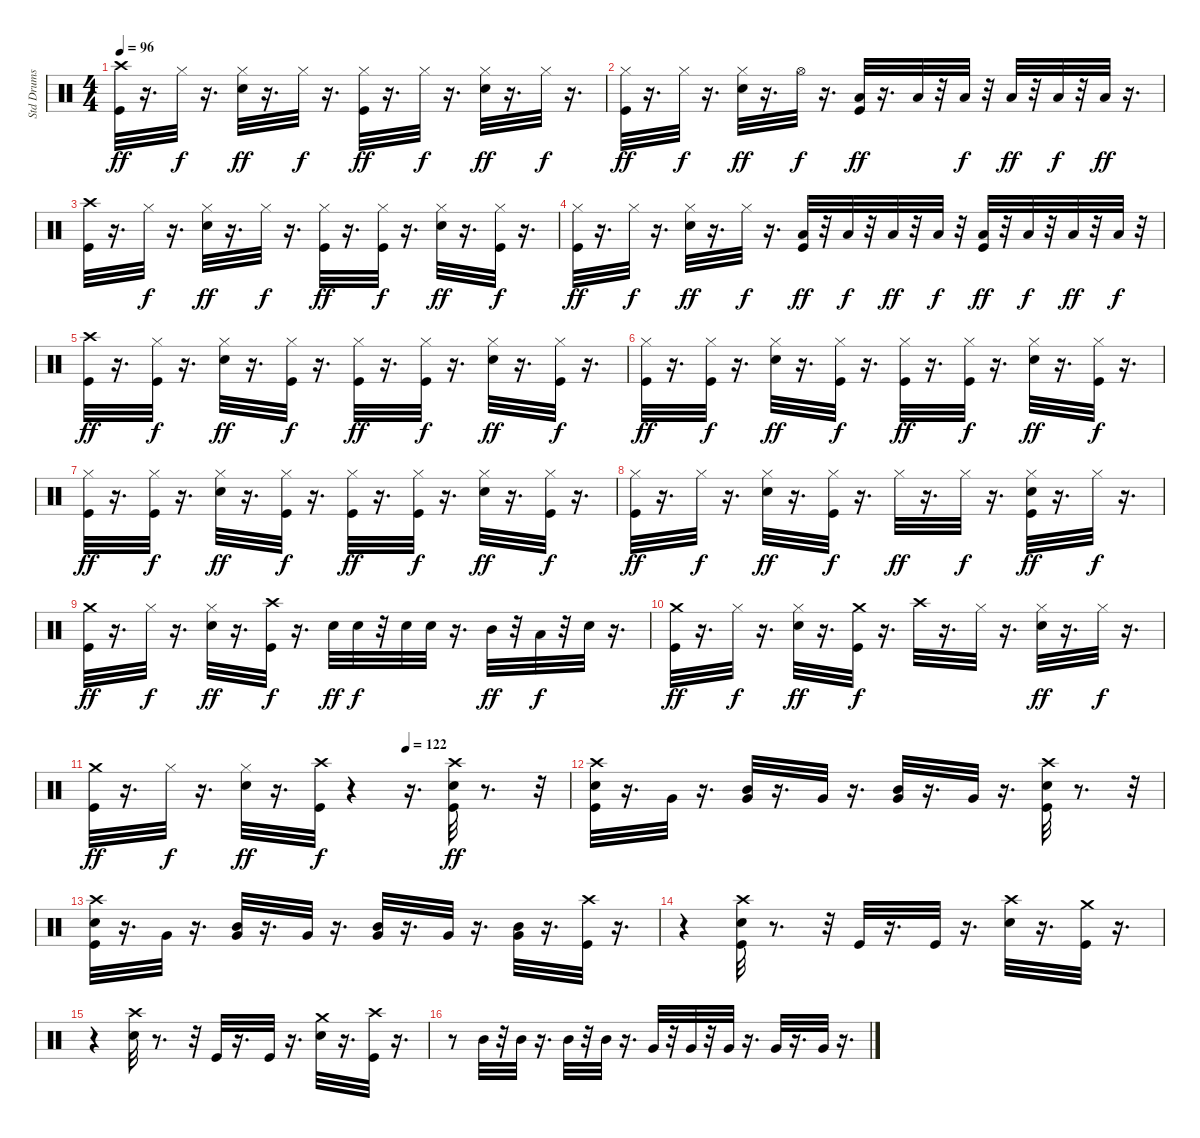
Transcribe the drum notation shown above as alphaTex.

\track ("Std Drums" "Std Drums") {instrument percussion}
\staff {score}
\articulation defaults
\ts (4 4)
\tempo 96
\clef neutral
\ks c
("Crash high (hit)" "Kick (hit)").32{dy ff} r.16{d} "Hi-Hat (closed)".32{dy f} r.16{d} ("Hi-Hat (closed)" "Snare (hit) 2").32{dy ff} r.16{d} "Hi-Hat (closed)".32{dy f} r.16{d} ("Hi-Hat (closed)" "Kick (hit)").32{dy ff} r.16{d} "Hi-Hat (closed)".32{dy f} r.16{d} ("Hi-Hat (closed)" "Snare (hit) 2").32{dy ff} r.16{d} "Hi-Hat (closed)".32{dy f} r.16{d} |
("Hi-Hat (closed)" "Kick (hit)").32{dy ff} r.16{d} "Hi-Hat (closed)".32{dy f} r.16{d} ("Hi-Hat (closed)" "Snare (hit) 2").32{dy ff} r.16{d} "Hi-Hat (open)".32{dy f} r.16{d} ("Low Tom (hit)" "Kick (hit)").32{dy ff} r.16{d} "Low Floor Tom (hit)".32 r.32 "Low Floor Tom (hit)".32{dy f} r.32 "Low Floor Tom (hit)".32{dy ff} r.32 "Low Floor Tom (hit)".32{dy f} r.32 "Low Floor Tom (hit)".32{dy ff} r.16{d} |
("Crash high (hit)" "Kick (hit)").32 r.16{d} "Hi-Hat (closed)".32{dy f} r.16{d} ("Hi-Hat (closed)" "Snare (hit) 2").32{dy ff} r.16{d} "Hi-Hat (closed)".32{dy f} r.16{d} ("Hi-Hat (closed)" "Kick (hit)").32{dy ff} r.16{d} ("Hi-Hat (closed)" "Kick (hit)").32{dy f} r.16{d} ("Hi-Hat (closed)" "Snare (hit) 2").32{dy ff} r.16{d} ("Hi-Hat (closed)" "Kick (hit)").32{dy f} r.16{d} |
("Hi-Hat (closed)" "Kick (hit)").32{dy ff} r.16{d} "Hi-Hat (closed)".32{dy f} r.16{d} ("Hi-Hat (closed)" "Snare (hit) 2").32{dy ff} r.16{d} "Hi-Hat (closed)".32{dy f} r.16{d} ("Low Tom (hit)" "Kick (hit)").32{dy ff} r.32 "Low Tom (hit)".32{dy f} r.32 "Low Tom (hit)".32{dy ff} r.32 "Low Tom (hit)".32{dy f} r.32 ("Kick (hit)" "Low Tom (hit)").32{dy ff} r.32 "Low Tom (hit)".32{dy f} r.32 "Low Tom (hit)".32{dy ff} r.32 "Low Tom (hit)".32{dy f} r.32 |
("Crash high (hit)" "Kick (hit)").32{dy ff} r.16{d} ("Hi-Hat (closed)" "Kick (hit)").32{dy f} r.16{d} ("Hi-Hat (closed)" "Snare (hit) 2").32{dy ff} r.16{d} ("Hi-Hat (closed)" "Kick (hit)").32{dy f} r.16{d} ("Hi-Hat (closed)" "Kick (hit)").32{dy ff} r.16{d} ("Hi-Hat (closed)" "Kick (hit)").32{dy f} r.16{d} ("Hi-Hat (closed)" "Snare (hit) 2").32{dy ff} r.16{d} ("Hi-Hat (closed)" "Kick (hit)").32{dy f} r.16{d} |
("Hi-Hat (closed)" "Kick (hit)").32{dy ff} r.16{d} ("Hi-Hat (closed)" "Kick (hit)").32{dy f} r.16{d} ("Hi-Hat (closed)" "Snare (hit) 2").32{dy ff} r.16{d} ("Hi-Hat (closed)" "Kick (hit)").32{dy f} r.16{d} ("Hi-Hat (closed)" "Kick (hit)").32{dy ff} r.16{d} ("Hi-Hat (closed)" "Kick (hit)").32{dy f} r.16{d} ("Hi-Hat (closed)" "Snare (hit) 2").32{dy ff} r.16{d} ("Hi-Hat (closed)" "Kick (hit)").32{dy f} r.16{d} |
("Hi-Hat (closed)" "Kick (hit)").32{dy ff} r.16{d} ("Hi-Hat (closed)" "Kick (hit)").32{dy f} r.16{d} ("Hi-Hat (closed)" "Snare (hit) 2").32{dy ff} r.16{d} ("Hi-Hat (closed)" "Kick (hit)").32{dy f} r.16{d} ("Hi-Hat (closed)" "Kick (hit)").32{dy ff} r.16{d} ("Hi-Hat (closed)" "Kick (hit)").32{dy f} r.16{d} ("Hi-Hat (closed)" "Snare (hit) 2").32{dy ff} r.16{d} ("Hi-Hat (closed)" "Kick (hit)").32{dy f} r.16{d} |
("Hi-Hat (closed)" "Kick (hit)").32{dy ff} r.16{d} "Hi-Hat (closed)".32{dy f} r.16{d} ("Hi-Hat (closed)" "Snare (hit) 2").32{dy ff} r.16{d} ("Hi-Hat (closed)" "Kick (hit)").32{dy f} r.16{d} "Hi-Hat (closed)".32{dy ff} r.16{d} "Hi-Hat (closed)".32{dy f} r.16{d} ("Hi-Hat (closed)" "Snare (hit) 2" "Kick (hit)").32{dy ff} r.16{d} "Hi-Hat (closed)".32{dy f} r.16{d} |
("Kick (hit)" "Crash medium (hit)").32{dy ff} r.16{d} "Hi-Hat (closed)".32{dy f} r.16{d} ("Hi-Hat (closed)" "Snare (hit) 2").32{dy ff} r.16{d} ("Crash high (hit)" "Kick (hit)").32{dy f} r.16{d} "Snare (hit) 2".32{dy ff} "Snare (hit) 2".32{dy f} r.32 "Snare (hit) 2".32 "Snare (hit) 2".32 r.16{d} "Mid Tom (hit)".32{dy ff} r.32 "Low Floor Tom (hit)".32{dy f} r.32 "Snare (hit) 2".32 r.16{d} |
("Kick (hit)" "Crash medium (hit)").32{dy ff} r.16{d} "Hi-Hat (closed)".32{dy f} r.16{d} ("Hi-Hat (closed)" "Snare (hit) 2").32{dy ff} r.16{d} ("Crash medium (hit)" "Kick (hit)").32{dy f} r.16{d} "Crash high (hit)".32 r.16{d} "Hi-Hat (closed)".32 r.16{d} ("Hi-Hat (closed)" "Snare (hit) 2").32{dy ff} r.16{d} "Hi-Hat (closed)".32{dy f} r.16{d} |
\tempo (122 0.65625)
("Crash medium (hit)" "Kick (hit)").32{dy ff} r.16{d} "Hi-Hat (closed)".32{dy f} r.16{d} ("Hi-Hat (closed)" "Snare (hit) 2").32{dy ff} r.16{d} ("Kick (hit)" "Crash high (hit)").32{dy f} r.4 r.16{d} ("Kick (hit)" "Snare (hit) 2" "Crash high (hit)").32{dy ff volume 14 balance 8} r.8{d} r.32 |
("Kick (hit)" "Crash high (hit)" "Snare (hit) 2").32 r.16{d} "Very Low Tom (hit)".32 r.16{d} ("Mid Tom (hit)" "Very Low Tom (hit)").32 r.16{d} "Very Low Tom (hit)".32 r.16{d} ("Mid Tom (hit)" "Very Low Tom (hit)").32 r.16{d} "Very Low Tom (hit)".32 r.16{d} ("Crash high (hit)" "Kick (hit)" "Snare (hit) 2").32 r.8{d} r.32 |
("Kick (hit)" "Crash high (hit)" "Snare (hit) 2").32 r.16{d} "Very Low Tom (hit)".32 r.16{d} ("Very Low Tom (hit)" "Mid Tom (hit)").32 r.16{d} "Very Low Tom (hit)".32 r.16{d} ("Very Low Tom (hit)" "Mid Tom (hit)").32 r.16{d} "Very Low Tom (hit)".32 r.16{d} ("Mid Tom (hit)" "Very Low Tom (hit)").32 r.16{d} ("Crash high (hit)" "Kick (hit)").32 r.16{d} |
r.4 ("Snare (hit) 2" "Kick (hit)" "Crash high (hit)").32 r.8{d} r.32 "Kick (hit)".32 r.16{d} "Kick (hit)".32 r.16{d} ("Crash high (hit)" "Snare (hit) 2").32 r.16{d} ("Kick (hit)" "Crash medium (hit)").32 r.16{d} |
r.4 ("Crash high (hit)" "Snare (hit) 2").32 r.8{d} r.32 "Kick (hit)".32 r.16{d} "Kick (hit)".32 r.16{d} ("Crash medium (hit)" "Snare (hit) 2").32 r.16{d} ("Kick (hit)" "Crash high (hit)").32 r.16{d} |
r.8 "Mid Tom (hit)".32 r.32 "Mid Tom (hit)".32 r.16{d} "Mid Tom (hit)".32 r.32 "Mid Tom (hit)".32 r.16{d} "Very Low Tom (hit)".32 r.32 "Very Low Tom (hit)".32 r.32 "Very Low Tom (hit)".32 r.16{d} "Very Low Tom (hit)".32 r.16{d} "Very Low Tom (hit)".32 r.16{d}
